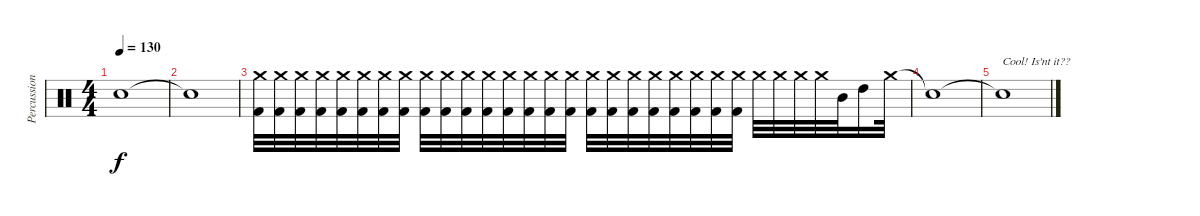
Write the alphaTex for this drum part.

\track ("Percussion" "Percussion") {instrument percussion}
\staff {score}
\articulation defaults
\ts (4 4)
\tempo 130
\clef neutral
\ks c "Snare (hit)"{t}.1{dy f}
|
"Snare (hit)"{t}.1 |
("Crash medium (hit)" "Kick (hit) 2").32 ("Crash medium (hit)" "Kick (hit) 2").32 ("Crash medium (hit)" "Kick (hit) 2").32 ("Crash medium (hit)" "Kick (hit) 2").32 ("Crash medium (hit)" "Kick (hit) 2").32 ("Crash medium (hit)" "Kick (hit) 2").32 ("Crash medium (hit)" "Kick (hit) 2").32 ("Crash medium (hit)" "Kick (hit) 2").32 ("Crash medium (hit)" "Kick (hit) 2").32 ("Crash medium (hit)" "Kick (hit) 2").32 ("Crash medium (hit)" "Kick (hit) 2").32 ("Crash medium (hit)" "Kick (hit) 2").32 ("Crash medium (hit)" "Kick (hit) 2").32 ("Crash medium (hit)" "Kick (hit) 2").32 ("Crash medium (hit)" "Kick (hit) 2").32 ("Crash medium (hit)" "Kick (hit) 2").32 ("Crash medium (hit)" "Kick (hit) 2").32 ("Crash medium (hit)" "Kick (hit) 2").32 ("Crash medium (hit)" "Kick (hit) 2").32 ("Crash medium (hit)" "Kick (hit) 2").32 ("Crash medium (hit)" "Kick (hit) 2").32 ("Crash medium (hit)" "Kick (hit) 2").32 ("Crash medium (hit)" "Kick (hit) 2").32 ("Crash medium (hit)" "Kick (hit) 2").32 "Crash medium (hit)".32 "Crash medium (hit)".32 "Crash medium (hit)".32 "Crash medium (hit)".32 "Mid Tom (hit)".32 "High Tom (hit)".16 "Crash medium (hit)".32 |
"Snare (hit)"{t}.1 |
"Snare (hit)"{t}.1{txt "Cool! Is'nt it?? "}
